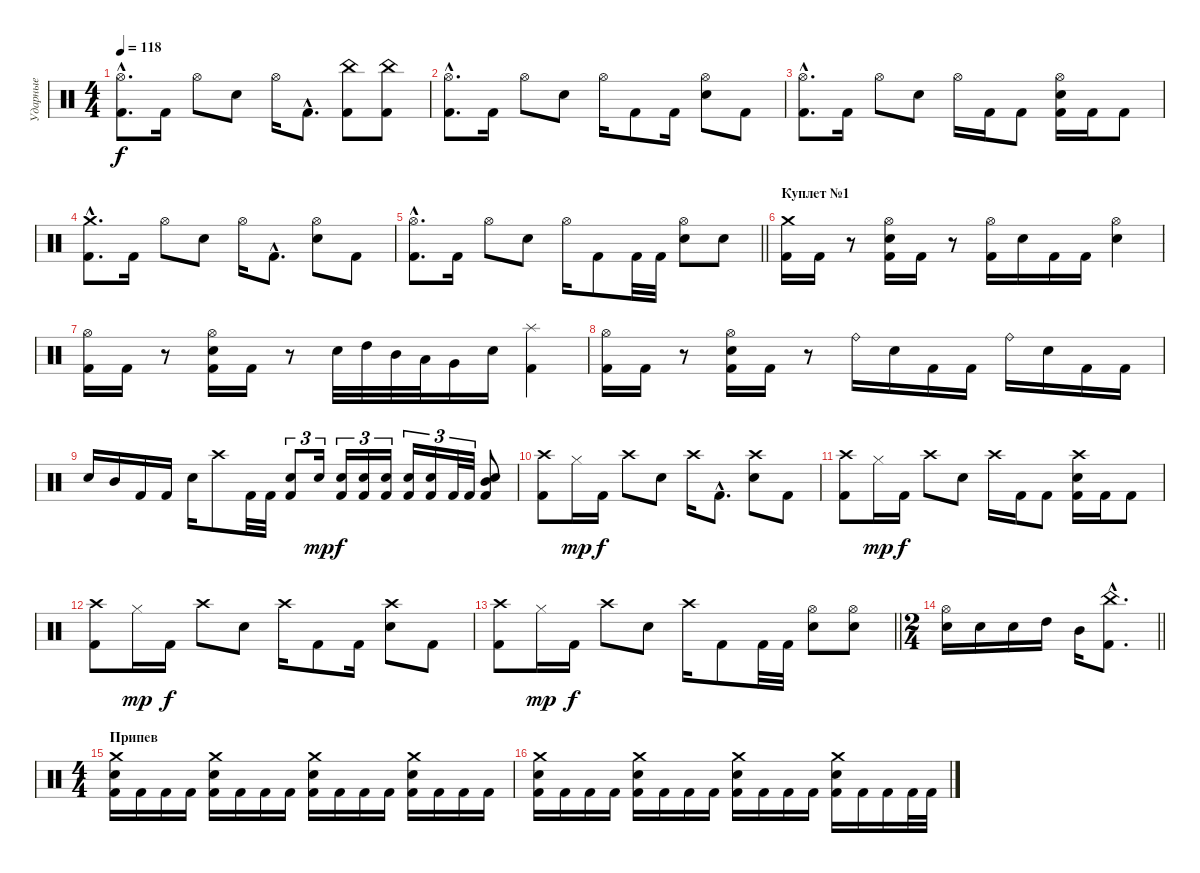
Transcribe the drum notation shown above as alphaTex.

\track ("Ударные" "Ударные") {instrument percussion}
\staff {score}
\articulation defaults
\ts (4 4)
\tempo 118
\clef neutral
\ks c
("Hi-Hat (open)"{hac} "Kick (hit) 2"{hac}).8{d dy f} "Kick (hit) 2".16 "Hi-Hat (open)".8 "Electric Snare (hit)".8 "Hi-Hat (open)".16 "Kick (hit) 2"{hac}.8{d} ("China (hit)" "Kick (hit) 2").8 ("China (hit)" "Kick (hit) 2").8 |
("Hi-Hat (open)"{hac} "Kick (hit) 2"{hac}).8{d} "Kick (hit) 2".16 "Hi-Hat (open)".8 "Electric Snare (hit)".8 "Hi-Hat (open)".16 "Kick (hit) 2".8 "Kick (hit) 2".16 ("Hi-Hat (open)" "Electric Snare (hit)").8 "Kick (hit) 2".8 |
("Hi-Hat (open)"{hac} "Kick (hit) 2"{hac}).8{d} "Kick (hit) 2".16 "Hi-Hat (open)".8 "Electric Snare (hit)".8 "Hi-Hat (open)".16 "Kick (hit) 2".16 "Kick (hit) 2".8 ("Hi-Hat (open)" "Electric Snare (hit)" "Kick (hit) 2").16 "Kick (hit) 2".16 "Kick (hit) 2".8 |
("Crash medium (hit)"{hac} "Kick (hit) 2"{hac}).8{d} "Kick (hit) 2".16 "Hi-Hat (open)".8 "Electric Snare (hit)".8 "Hi-Hat (open)".16 "Kick (hit) 2"{hac}.8{d} ("Hi-Hat (open)" "Electric Snare (hit)").8 "Kick (hit) 2".8 |
\barLineRight lightlight
("Hi-Hat (open)"{hac} "Kick (hit) 2"{hac}).8{d} "Kick (hit) 2".16 "Hi-Hat (open)".8 "Electric Snare (hit)".8 "Hi-Hat (open)".16 "Kick (hit) 2".8 "Kick (hit) 2".32 "Kick (hit) 2".32 ("Hi-Hat (open)" "Electric Snare (hit)").8 "Electric Snare (hit)".8 |
\section ("" "Куплет №1")
("Crash medium (hit)" "Kick (hit) 2").16 "Kick (hit) 2".16 r.8 ("Hi-Hat (open)" "Electric Snare (hit)" "Kick (hit) 2").16 "Kick (hit) 2".16 r.8 ("Hi-Hat (open)" "Kick (hit) 2").16 "Electric Snare (hit)".16 "Kick (hit) 2".16 "Kick (hit) 2".16 ("Hi-Hat (open)" "Electric Snare (hit)").4 |
("Hi-Hat (open)" "Kick (hit) 2").16 "Kick (hit) 2".16 r.8 ("Hi-Hat (open)" "Electric Snare (hit)" "Kick (hit) 2").16 "Kick (hit) 2".16 r.8 "Electric Snare (hit)".32 "High Tom (hit)".32 "Mid Tom (hit)".32 "Low Tom (hit)".32 "Very Low Tom (hit)".16 "Electric Snare (hit)".16 ("Splash (hit)" "Kick (hit) 2").4 |
("Hi-Hat (open)" "Kick (hit) 2").16 "Kick (hit) 2".16 r.8 ("Hi-Hat (open)" "Electric Snare (hit)" "Kick (hit) 2").16 "Kick (hit) 2".16 r.8 "Ride (bell)".16 "Electric Snare (hit)".16 "Kick (hit) 2".16 "Kick (hit) 2".16 "Ride (bell)".16 "Electric Snare (hit)".16 "Kick (hit) 2".16 "Kick (hit) 2".16 |
"Electric Snare (hit)".16 "Mid Tom (hit)".16 "Kick (hit) 2".16 "Kick (hit) 2".16 "Electric Snare (hit)".16 "Crash high (hit)".8 "Kick (hit) 2".32 "Kick (hit) 2".32 ("Electric Snare (hit)" "Kick (hit) 2").8{tu (3 2)} "Electric Snare (hit)".16{tu (3 2) dy mp} ("Electric Snare (hit)" "Kick (hit) 2").16{tu (3 2) dy f} ("Electric Snare (hit)" "Kick (hit) 2").16{tu (3 2)} ("Electric Snare (hit)" "Kick (hit) 2").16{tu (3 2)} ("Electric Snare (hit)" "Kick (hit) 2").16{tu (3 2)} ("Electric Snare (hit)" "Kick (hit) 2").16{tu (3 2)} "Kick (hit) 2".32{tu (3 2)} "Kick (hit) 2".32{tu (3 2)} ("Mid Tom (hit)" "Electric Snare (hit)" "Kick (hit) 2").8 |
("Crash high (hit)" "Kick (hit) 2").8 "Hi-Hat (closed)".16{dy mp} "Kick (hit) 2".16{dy f} "Crash high (hit)".8 "Electric Snare (hit)".8 "Crash high (hit)".16 "Kick (hit) 2"{hac}.8{d} ("Crash high (hit)" "Electric Snare (hit)").8 "Kick (hit) 2".8 |
("Crash high (hit)" "Kick (hit) 2").8 "Hi-Hat (closed)".16{dy mp} "Kick (hit) 2".16{dy f} "Crash high (hit)".8 "Electric Snare (hit)".8 "Crash high (hit)".16 "Kick (hit) 2".16 "Kick (hit) 2".8 ("Crash high (hit)" "Electric Snare (hit)" "Kick (hit) 2").16 "Kick (hit) 2".16 "Kick (hit) 2".8 |
("Crash high (hit)" "Kick (hit) 2").8 "Hi-Hat (closed)".16{dy mp} "Kick (hit) 2".16{dy f} "Crash high (hit)".8 "Electric Snare (hit)".8 "Crash high (hit)".16 "Kick (hit) 2".8 "Kick (hit) 2".16 ("Crash high (hit)" "Electric Snare (hit)").8 "Kick (hit) 2".8 |
\barLineRight lightlight
("Crash high (hit)" "Kick (hit) 2").8 "Hi-Hat (closed)".16{dy mp} "Kick (hit) 2".16{dy f} "Crash high (hit)".8 "Electric Snare (hit)".8 "Crash high (hit)".16 "Kick (hit) 2".8 "Kick (hit) 2".32 "Kick (hit) 2".32 ("Hi-Hat (open)" "Electric Snare (hit)").8 ("Hi-Hat (open)" "Electric Snare (hit)").8 |
\ts (2 4)
\barLineRight lightlight
("Hi-Hat (open)" "Electric Snare (hit)").16 "Electric Snare (hit)".16 "Electric Snare (hit)".16 "High Tom (hit)".16 "Mid Tom (hit)".16 ("China (hit)"{hac} "Kick (hit) 2"{hac}).8{d} |
\ts (4 4)
\section ("" "Припев")
("Crash medium (hit)" "Electric Snare (hit)" "Kick (hit) 2").16 "Kick (hit) 2".16 "Kick (hit) 2".16 "Kick (hit) 2".16 ("Crash medium (hit)" "Electric Snare (hit)" "Kick (hit) 2").16 "Kick (hit) 2".16 "Kick (hit) 2".16 "Kick (hit) 2".16 ("Crash medium (hit)" "Electric Snare (hit)" "Kick (hit) 2").16 "Kick (hit) 2".16 "Kick (hit) 2".16 "Kick (hit) 2".16 ("Crash medium (hit)" "Electric Snare (hit)" "Kick (hit) 2").16 "Kick (hit) 2".16 "Kick (hit) 2".16 "Kick (hit) 2".16 |
("Crash medium (hit)" "Electric Snare (hit)" "Kick (hit) 2").16 "Kick (hit) 2".16 "Kick (hit) 2".16 "Kick (hit) 2".16 ("Crash medium (hit)" "Electric Snare (hit)" "Kick (hit) 2").16 "Kick (hit) 2".16 "Kick (hit) 2".16 "Kick (hit) 2".16 ("Crash medium (hit)" "Electric Snare (hit)" "Kick (hit) 2").16 "Kick (hit) 2".16 "Kick (hit) 2".16 "Kick (hit) 2".16 ("Crash medium (hit)" "Electric Snare (hit)" "Kick (hit) 2").16 "Kick (hit) 2".16 "Kick (hit) 2".16 "Kick (hit) 2".32 "Kick (hit) 2".32
